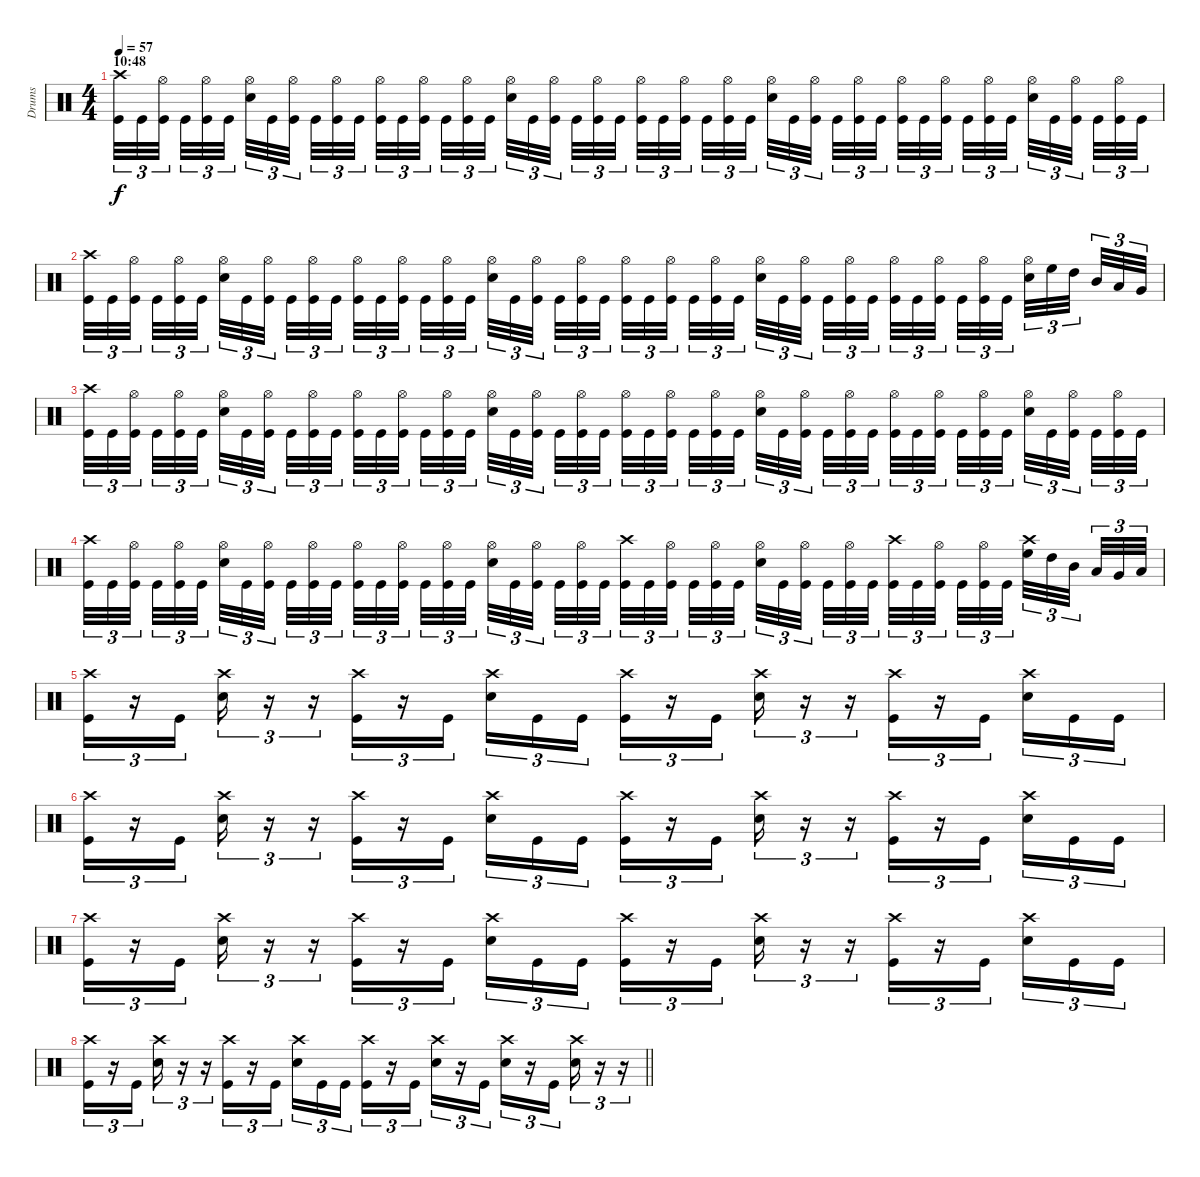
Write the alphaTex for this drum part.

\track ("Drums" "Drums") {instrument percussion}
\staff {score}
\articulation defaults
\ts (4 4)
\section ("" "10:48")
\tempo 57
\clef neutral
\ks c
("Kick (hit)" "Crash high (hit)").32{tu (3 2) dy f} "Kick (hit)".32{tu (3 2)} ("Kick (hit)" "Hi-Hat (open)").32{tu (3 2) beam splitsecondary} "Kick (hit)".32{tu (3 2)} ("Kick (hit)" "Hi-Hat (open)").32{tu (3 2)} "Kick (hit)".32{tu (3 2) beam splitsecondary} ("Snare (hit) 2" "Hi-Hat (open)").32{tu (3 2)} "Kick (hit)".32{tu (3 2)} ("Kick (hit)" "Hi-Hat (open)").32{tu (3 2) beam splitsecondary} "Kick (hit)".32{tu (3 2)} ("Kick (hit)" "Hi-Hat (open)").32{tu (3 2)} "Kick (hit)".32{tu (3 2)} ("Kick (hit)" "Hi-Hat (open)").32{tu (3 2)} "Kick (hit)".32{tu (3 2)} ("Kick (hit)" "Hi-Hat (open)").32{tu (3 2) beam splitsecondary} "Kick (hit)".32{tu (3 2)} ("Kick (hit)" "Hi-Hat (open)").32{tu (3 2)} "Kick (hit)".32{tu (3 2) beam splitsecondary} ("Snare (hit) 2" "Hi-Hat (open)").32{tu (3 2)} "Kick (hit)".32{tu (3 2)} ("Kick (hit)" "Hi-Hat (open)").32{tu (3 2) beam splitsecondary} "Kick (hit)".32{tu (3 2)} ("Kick (hit)" "Hi-Hat (open)").32{tu (3 2)} "Kick (hit)".32{tu (3 2)} ("Kick (hit)" "Hi-Hat (open)").32{tu (3 2)} "Kick (hit)".32{tu (3 2)} ("Kick (hit)" "Hi-Hat (open)").32{tu (3 2) beam splitsecondary} "Kick (hit)".32{tu (3 2)} ("Kick (hit)" "Hi-Hat (open)").32{tu (3 2)} "Kick (hit)".32{tu (3 2) beam splitsecondary} ("Snare (hit) 2" "Hi-Hat (open)").32{tu (3 2)} "Kick (hit)".32{tu (3 2)} ("Kick (hit)" "Hi-Hat (open)").32{tu (3 2) beam splitsecondary} "Kick (hit)".32{tu (3 2)} ("Kick (hit)" "Hi-Hat (open)").32{tu (3 2)} "Kick (hit)".32{tu (3 2)} ("Kick (hit)" "Hi-Hat (open)").32{tu (3 2)} "Kick (hit)".32{tu (3 2)} ("Kick (hit)" "Hi-Hat (open)").32{tu (3 2) beam splitsecondary} "Kick (hit)".32{tu (3 2)} ("Kick (hit)" "Hi-Hat (open)").32{tu (3 2)} "Kick (hit)".32{tu (3 2) beam splitsecondary} ("Snare (hit) 2" "Hi-Hat (open)").32{tu (3 2)} "Kick (hit)".32{tu (3 2)} ("Kick (hit)" "Hi-Hat (open)").32{tu (3 2) beam splitsecondary} "Kick (hit)".32{tu (3 2)} ("Kick (hit)" "Hi-Hat (open)").32{tu (3 2)} "Kick (hit)".32{tu (3 2)} |
("Kick (hit)" "Crash high (hit)").32{tu (3 2)} "Kick (hit)".32{tu (3 2)} ("Kick (hit)" "Hi-Hat (open)").32{tu (3 2) beam splitsecondary} "Kick (hit)".32{tu (3 2)} ("Kick (hit)" "Hi-Hat (open)").32{tu (3 2)} "Kick (hit)".32{tu (3 2) beam splitsecondary} ("Snare (hit) 2" "Hi-Hat (open)").32{tu (3 2)} "Kick (hit)".32{tu (3 2)} ("Kick (hit)" "Hi-Hat (open)").32{tu (3 2) beam splitsecondary} "Kick (hit)".32{tu (3 2)} ("Kick (hit)" "Hi-Hat (open)").32{tu (3 2)} "Kick (hit)".32{tu (3 2)} ("Kick (hit)" "Hi-Hat (open)").32{tu (3 2)} "Kick (hit)".32{tu (3 2)} ("Kick (hit)" "Hi-Hat (open)").32{tu (3 2) beam splitsecondary} "Kick (hit)".32{tu (3 2)} ("Kick (hit)" "Hi-Hat (open)").32{tu (3 2)} "Kick (hit)".32{tu (3 2) beam splitsecondary} ("Snare (hit) 2" "Hi-Hat (open)").32{tu (3 2)} "Kick (hit)".32{tu (3 2)} ("Kick (hit)" "Hi-Hat (open)").32{tu (3 2) beam splitsecondary} "Kick (hit)".32{tu (3 2)} ("Kick (hit)" "Hi-Hat (open)").32{tu (3 2)} "Kick (hit)".32{tu (3 2)} ("Kick (hit)" "Hi-Hat (open)").32{tu (3 2)} "Kick (hit)".32{tu (3 2)} ("Kick (hit)" "Hi-Hat (open)").32{tu (3 2) beam splitsecondary} "Kick (hit)".32{tu (3 2)} ("Kick (hit)" "Hi-Hat (open)").32{tu (3 2)} "Kick (hit)".32{tu (3 2) beam splitsecondary} ("Snare (hit) 2" "Hi-Hat (open)").32{tu (3 2)} "Kick (hit)".32{tu (3 2)} ("Kick (hit)" "Hi-Hat (open)").32{tu (3 2) beam splitsecondary} "Kick (hit)".32{tu (3 2)} ("Kick (hit)" "Hi-Hat (open)").32{tu (3 2)} "Kick (hit)".32{tu (3 2)} ("Kick (hit)" "Hi-Hat (open)").32{tu (3 2)} "Kick (hit)".32{tu (3 2)} ("Kick (hit)" "Hi-Hat (open)").32{tu (3 2) beam splitsecondary} "Kick (hit)".32{tu (3 2)} ("Kick (hit)" "Hi-Hat (open)").32{tu (3 2)} "Kick (hit)".32{tu (3 2) beam splitsecondary} ("Snare (hit) 2" "Hi-Hat (open)").32{tu (3 2)} "High Floor Tom (hit)".32{tu (3 2)} "High Tom (hit)".32{tu (3 2) beam splitsecondary} "Mid Tom (hit)".32{tu (3 2)} "Low Tom (hit)".32{tu (3 2)} "Very Low Tom (hit)".32{tu (3 2)} |
("Kick (hit)" "Crash high (hit)").32{tu (3 2)} "Kick (hit)".32{tu (3 2)} ("Kick (hit)" "Hi-Hat (open)").32{tu (3 2) beam splitsecondary} "Kick (hit)".32{tu (3 2)} ("Kick (hit)" "Hi-Hat (open)").32{tu (3 2)} "Kick (hit)".32{tu (3 2) beam splitsecondary} ("Snare (hit) 2" "Hi-Hat (open)").32{tu (3 2)} "Kick (hit)".32{tu (3 2)} ("Kick (hit)" "Hi-Hat (open)").32{tu (3 2) beam splitsecondary} "Kick (hit)".32{tu (3 2)} ("Kick (hit)" "Hi-Hat (open)").32{tu (3 2)} "Kick (hit)".32{tu (3 2)} ("Kick (hit)" "Hi-Hat (open)").32{tu (3 2)} "Kick (hit)".32{tu (3 2)} ("Kick (hit)" "Hi-Hat (open)").32{tu (3 2) beam splitsecondary} "Kick (hit)".32{tu (3 2)} ("Kick (hit)" "Hi-Hat (open)").32{tu (3 2)} "Kick (hit)".32{tu (3 2) beam splitsecondary} ("Snare (hit) 2" "Hi-Hat (open)").32{tu (3 2)} "Kick (hit)".32{tu (3 2)} ("Kick (hit)" "Hi-Hat (open)").32{tu (3 2) beam splitsecondary} "Kick (hit)".32{tu (3 2)} ("Kick (hit)" "Hi-Hat (open)").32{tu (3 2)} "Kick (hit)".32{tu (3 2)} ("Kick (hit)" "Hi-Hat (open)").32{tu (3 2)} "Kick (hit)".32{tu (3 2)} ("Kick (hit)" "Hi-Hat (open)").32{tu (3 2) beam splitsecondary} "Kick (hit)".32{tu (3 2)} ("Kick (hit)" "Hi-Hat (open)").32{tu (3 2)} "Kick (hit)".32{tu (3 2) beam splitsecondary} ("Snare (hit) 2" "Hi-Hat (open)").32{tu (3 2)} "Kick (hit)".32{tu (3 2)} ("Kick (hit)" "Hi-Hat (open)").32{tu (3 2) beam splitsecondary} "Kick (hit)".32{tu (3 2)} ("Kick (hit)" "Hi-Hat (open)").32{tu (3 2)} "Kick (hit)".32{tu (3 2)} ("Kick (hit)" "Hi-Hat (open)").32{tu (3 2)} "Kick (hit)".32{tu (3 2)} ("Kick (hit)" "Hi-Hat (open)").32{tu (3 2) beam splitsecondary} "Kick (hit)".32{tu (3 2)} ("Kick (hit)" "Hi-Hat (open)").32{tu (3 2)} "Kick (hit)".32{tu (3 2) beam splitsecondary} ("Snare (hit) 2" "Hi-Hat (open)").32{tu (3 2)} "Kick (hit)".32{tu (3 2)} ("Kick (hit)" "Hi-Hat (open)").32{tu (3 2) beam splitsecondary} "Kick (hit)".32{tu (3 2)} ("Kick (hit)" "Hi-Hat (open)").32{tu (3 2)} "Kick (hit)".32{tu (3 2)} |
("Kick (hit)" "Crash high (hit)").32{tu (3 2)} "Kick (hit)".32{tu (3 2)} ("Kick (hit)" "Hi-Hat (open)").32{tu (3 2) beam splitsecondary} "Kick (hit)".32{tu (3 2)} ("Kick (hit)" "Hi-Hat (open)").32{tu (3 2)} "Kick (hit)".32{tu (3 2) beam splitsecondary} ("Snare (hit) 2" "Hi-Hat (open)").32{tu (3 2)} "Kick (hit)".32{tu (3 2)} ("Kick (hit)" "Hi-Hat (open)").32{tu (3 2) beam splitsecondary} "Kick (hit)".32{tu (3 2)} ("Kick (hit)" "Hi-Hat (open)").32{tu (3 2)} "Kick (hit)".32{tu (3 2)} ("Kick (hit)" "Hi-Hat (open)").32{tu (3 2)} "Kick (hit)".32{tu (3 2)} ("Kick (hit)" "Hi-Hat (open)").32{tu (3 2) beam splitsecondary} "Kick (hit)".32{tu (3 2)} ("Kick (hit)" "Hi-Hat (open)").32{tu (3 2)} "Kick (hit)".32{tu (3 2) beam splitsecondary} ("Snare (hit) 2" "Hi-Hat (open)").32{tu (3 2)} "Kick (hit)".32{tu (3 2)} ("Kick (hit)" "Hi-Hat (open)").32{tu (3 2) beam splitsecondary} "Kick (hit)".32{tu (3 2)} ("Kick (hit)" "Hi-Hat (open)").32{tu (3 2)} "Kick (hit)".32{tu (3 2)} ("Kick (hit)" "Crash high (hit)").32{tu (3 2)} "Kick (hit)".32{tu (3 2)} ("Kick (hit)" "Hi-Hat (open)").32{tu (3 2) beam splitsecondary} "Kick (hit)".32{tu (3 2)} ("Kick (hit)" "Hi-Hat (open)").32{tu (3 2)} "Kick (hit)".32{tu (3 2) beam splitsecondary} ("Snare (hit) 2" "Hi-Hat (open)").32{tu (3 2)} "Kick (hit)".32{tu (3 2)} ("Kick (hit)" "Hi-Hat (open)").32{tu (3 2) beam splitsecondary} "Kick (hit)".32{tu (3 2)} ("Kick (hit)" "Hi-Hat (open)").32{tu (3 2)} "Kick (hit)".32{tu (3 2)} ("Kick (hit)" "Crash high (hit)").32{tu (3 2)} "Kick (hit)".32{tu (3 2)} ("Kick (hit)" "Hi-Hat (open)").32{tu (3 2) beam splitsecondary} "Kick (hit)".32{tu (3 2)} ("Kick (hit)" "Hi-Hat (open)").32{tu (3 2)} "Kick (hit)".32{tu (3 2) beam splitsecondary} ("Crash high (hit)" "High Floor Tom (hit)").32{tu (3 2)} "High Tom (hit)".32{tu (3 2)} "Mid Tom (hit)".32{tu (3 2) beam splitsecondary} "Low Tom (hit)".32{tu (3 2)} "Very Low Tom (hit)".32{tu (3 2)} "Low Floor Tom (hit)".32{tu (3 2)} |
("Crash high (hit)" "Kick (hit)").16{tu (3 2)} r.16{tu (3 2)} "Kick (hit)".16{tu (3 2)} ("Snare (hit) 2" "Crash high (hit)").16{tu (3 2)} r.16{tu (3 2)} r.16{tu (3 2)} ("Kick (hit)" "Crash high (hit)").16{tu (3 2)} r.16{tu (3 2)} "Kick (hit)".16{tu (3 2) beam splitsecondary} ("Snare (hit) 2" "Crash high (hit)").16{tu (3 2)} "Kick (hit)".16{tu (3 2)} "Kick (hit)".16{tu (3 2)} ("Crash high (hit)" "Kick (hit)").16{tu (3 2)} r.16{tu (3 2)} "Kick (hit)".16{tu (3 2)} ("Snare (hit) 2" "Crash high (hit)").16{tu (3 2)} r.16{tu (3 2)} r.16{tu (3 2)} ("Kick (hit)" "Crash high (hit)").16{tu (3 2)} r.16{tu (3 2)} "Kick (hit)".16{tu (3 2) beam splitsecondary} ("Snare (hit) 2" "Crash high (hit)").16{tu (3 2)} "Kick (hit)".16{tu (3 2)} "Kick (hit)".16{tu (3 2)} |
("Crash high (hit)" "Kick (hit)").16{tu (3 2)} r.16{tu (3 2)} "Kick (hit)".16{tu (3 2)} ("Snare (hit) 2" "Crash high (hit)").16{tu (3 2)} r.16{tu (3 2)} r.16{tu (3 2)} ("Kick (hit)" "Crash high (hit)").16{tu (3 2)} r.16{tu (3 2)} "Kick (hit)".16{tu (3 2) beam splitsecondary} ("Snare (hit) 2" "Crash high (hit)").16{tu (3 2)} "Kick (hit)".16{tu (3 2)} "Kick (hit)".16{tu (3 2)} ("Crash high (hit)" "Kick (hit)").16{tu (3 2)} r.16{tu (3 2)} "Kick (hit)".16{tu (3 2)} ("Snare (hit) 2" "Crash high (hit)").16{tu (3 2)} r.16{tu (3 2)} r.16{tu (3 2)} ("Kick (hit)" "Crash high (hit)").16{tu (3 2)} r.16{tu (3 2)} "Kick (hit)".16{tu (3 2) beam splitsecondary} ("Snare (hit) 2" "Crash high (hit)").16{tu (3 2)} "Kick (hit)".16{tu (3 2)} "Kick (hit)".16{tu (3 2)} |
("Crash high (hit)" "Kick (hit)").16{tu (3 2)} r.16{tu (3 2)} "Kick (hit)".16{tu (3 2)} ("Snare (hit) 2" "Crash high (hit)").16{tu (3 2)} r.16{tu (3 2)} r.16{tu (3 2)} ("Kick (hit)" "Crash high (hit)").16{tu (3 2)} r.16{tu (3 2)} "Kick (hit)".16{tu (3 2) beam splitsecondary} ("Snare (hit) 2" "Crash high (hit)").16{tu (3 2)} "Kick (hit)".16{tu (3 2)} "Kick (hit)".16{tu (3 2)} ("Crash high (hit)" "Kick (hit)").16{tu (3 2)} r.16{tu (3 2)} "Kick (hit)".16{tu (3 2)} ("Snare (hit) 2" "Crash high (hit)").16{tu (3 2)} r.16{tu (3 2)} r.16{tu (3 2)} ("Kick (hit)" "Crash high (hit)").16{tu (3 2)} r.16{tu (3 2)} "Kick (hit)".16{tu (3 2) beam splitsecondary} ("Snare (hit) 2" "Crash high (hit)").16{tu (3 2)} "Kick (hit)".16{tu (3 2)} "Kick (hit)".16{tu (3 2)} |
\barLineRight lightlight
("Crash high (hit)" "Kick (hit)").16{tu (3 2)} r.16{tu (3 2)} "Kick (hit)".16{tu (3 2)} ("Snare (hit) 2" "Crash high (hit)").16{tu (3 2)} r.16{tu (3 2)} r.16{tu (3 2)} ("Kick (hit)" "Crash high (hit)").16{tu (3 2)} r.16{tu (3 2)} "Kick (hit)".16{tu (3 2) beam splitsecondary} ("Snare (hit) 2" "Crash high (hit)").16{tu (3 2)} "Kick (hit)".16{tu (3 2)} "Kick (hit)".16{tu (3 2)} ("Crash high (hit)" "Kick (hit)").16{tu (3 2)} r.16{tu (3 2)} "Kick (hit)".16{tu (3 2)} ("Snare (hit) 2" "Crash high (hit)").16{tu (3 2)} r.16{tu (3 2)} "Kick (hit)".16{tu (3 2)} ("Snare (hit) 2" "Crash high (hit)").16{tu (3 2)} r.16{tu (3 2)} "Kick (hit)".16{tu (3 2)} ("Snare (hit) 2" "Crash high (hit)").16{tu (3 2)} r.16{tu (3 2)} r.16{tu (3 2)}
